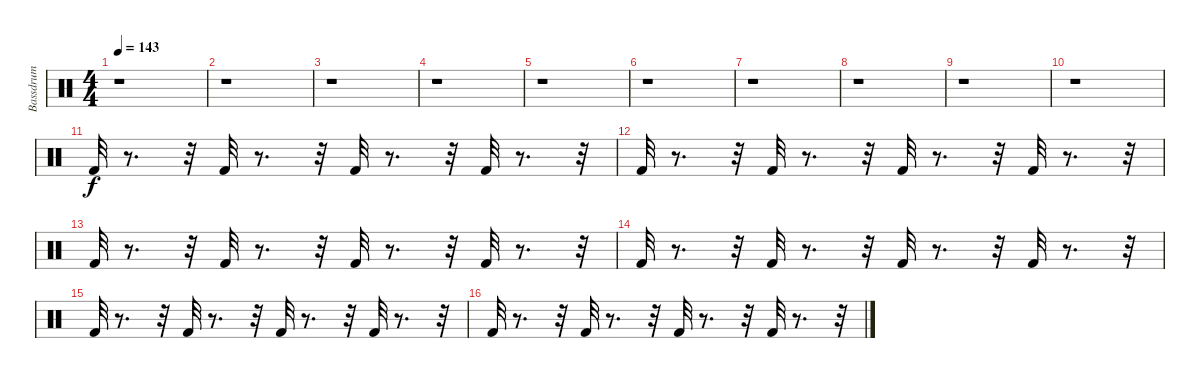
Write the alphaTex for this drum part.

\track ("Bassdrum " "Bassdrum ") {instrument percussion}
\staff {score}
\articulation defaults
\ts (4 4)
\tempo 143
\clef neutral
\ks c
r.1{dy f} |
r.1 |
r.1 |
r.1 |
r.1 |
r.1 |
r.1 |
r.1 |
r.1 |
r.1 |
"Kick (hit) 2".32 r.8{d} r.32 "Kick (hit) 2".32 r.8{d} r.32 "Kick (hit) 2".32 r.8{d} r.32 "Kick (hit) 2".32 r.8{d} r.32 |
"Kick (hit) 2".32 r.8{d} r.32 "Kick (hit) 2".32 r.8{d} r.32 "Kick (hit) 2".32 r.8{d} r.32 "Kick (hit) 2".32 r.8{d} r.32 |
"Kick (hit) 2".32 r.8{d} r.32 "Kick (hit) 2".32 r.8{d} r.32 "Kick (hit) 2".32 r.8{d} r.32 "Kick (hit) 2".32 r.8{d} r.32 |
"Kick (hit) 2".32 r.8{d} r.32 "Kick (hit) 2".32 r.8{d} r.32 "Kick (hit) 2".32 r.8{d} r.32 "Kick (hit) 2".32 r.8{d} r.32 |
"Kick (hit) 2".32 r.8{d} r.32 "Kick (hit) 2".32 r.8{d} r.32 "Kick (hit) 2".32 r.8{d} r.32 "Kick (hit) 2".32 r.8{d} r.32 |
"Kick (hit) 2".32 r.8{d} r.32 "Kick (hit) 2".32 r.8{d} r.32 "Kick (hit) 2".32 r.8{d} r.32 "Kick (hit) 2".32 r.8{d} r.32
